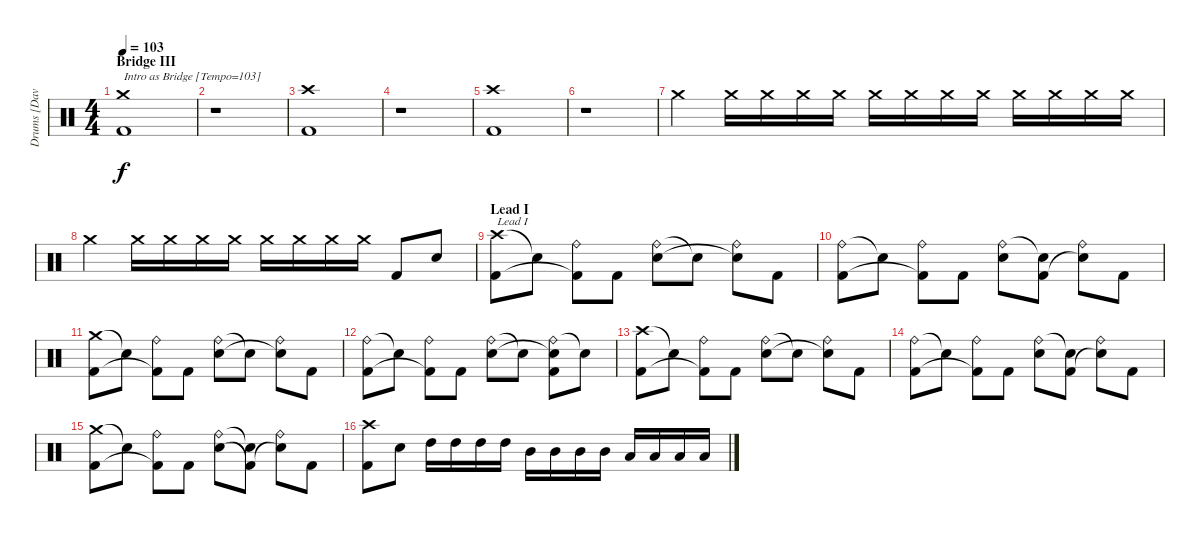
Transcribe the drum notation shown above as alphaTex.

\track ("Drums [Dave Culross]" "Drums [Dav") {instrument percussion}
\staff {score}
\articulation defaults
\ts (4 4)
\section ("" "Bridge III")
\tempo 103
\clef neutral
\ks c
("Crash medium (hit)" "Kick (hit) 2").1{txt "Intro as Bridge [Tempo=103]" dy f} |
r.1 |
("Crash high (hit)" "Kick (hit) 2").1 |
r.1 |
("Crash high (hit)" "Kick (hit) 2").1 |
r.1 |
"Crash medium (hit)".4 "Crash medium (hit)".16{volume 3} "Crash medium (hit)".16{volume 14} "Crash medium (hit)".16 "Crash medium (hit)".16 "Crash medium (hit)".16 "Crash medium (hit)".16 "Crash medium (hit)".16 "Crash medium (hit)".16 "Crash medium (hit)".16 "Crash medium (hit)".16 "Crash medium (hit)".16 "Crash medium (hit)".16 |
"Crash medium (hit)".4 "Crash medium (hit)".16{volume 3} "Crash medium (hit)".16{volume 14} "Crash medium (hit)".16 "Crash medium (hit)".16 "Crash medium (hit)".16 "Crash medium (hit)".16 "Crash medium (hit)".16 "Crash medium (hit)".16 "Kick (hit) 2".8 "Electric Snare (hit)".8 |
\section ("" "Lead I")
("Crash high (hit)" "Kick (hit) 2").8{txt "Lead I"} "Snare (hit)"{t}.8 ("Ride (bell)" "Kick (hit) 2"{t}).8 "Kick (hit) 2".8 ("Ride (bell)" "Electric Snare (hit)").8 "Snare (hit)"{t}.8 ("Ride (bell)" "Snare (hit)"{t}).8 "Kick (hit) 2".8 |
("Ride (bell)" "Kick (hit) 2").8 "Snare (hit)"{t}.8 ("Ride (bell)" "Kick (hit) 2"{t}).8 "Kick (hit) 2".8 ("Ride (bell)" "Electric Snare (hit)").8 ("Snare (hit)"{t} "Kick (hit) 2").8 ("Ride (bell)" "Snare (hit)"{t}).8 "Kick (hit) 2".8 |
("Crash medium (hit)" "Kick (hit) 2").8 "Snare (hit)"{t}.8 ("Ride (bell)" "Kick (hit) 2"{t}).8 "Kick (hit) 2".8 ("Ride (bell)" "Electric Snare (hit)").8 "Snare (hit)"{t}.8 ("Ride (bell)" "Snare (hit)"{t}).8 "Kick (hit) 2".8 |
("Ride (bell)" "Kick (hit) 2").8 "Snare (hit)"{t}.8 ("Ride (bell)" "Kick (hit) 2"{t}).8 "Kick (hit) 2".8 ("Ride (bell)" "Electric Snare (hit)").8 "Snare (hit)"{t}.8 ("Ride (bell)" "Snare (hit)"{t} "Kick (hit) 2").8 "Snare (hit)"{t}.8 |
("Crash high (hit)" "Kick (hit) 2").8 "Snare (hit)"{t}.8 ("Ride (bell)" "Kick (hit) 2"{t}).8 "Kick (hit) 2".8 ("Ride (bell)" "Electric Snare (hit)").8 "Snare (hit)"{t}.8 ("Ride (bell)" "Snare (hit)"{t}).8 "Kick (hit) 2".8 |
("Ride (bell)" "Kick (hit) 2").8 "Snare (hit)"{t}.8 ("Ride (bell)" "Kick (hit) 2"{t}).8 "Kick (hit) 2".8 ("Ride (bell)" "Electric Snare (hit)").8 ("Snare (hit)"{t} "Kick (hit) 2").8 ("Ride (bell)" "Snare (hit)"{t}).8 "Kick (hit) 2".8 |
("Crash medium (hit)" "Kick (hit) 2").8 "Snare (hit)"{t}.8 ("Ride (bell)" "Kick (hit) 2"{t}).8 "Kick (hit) 2".8 ("Ride (bell)" "Electric Snare (hit)").8 ("Snare (hit)"{t} "Kick (hit) 2"{t}).8 ("Ride (bell)" "Snare (hit)"{t}).8 "Kick (hit) 2".8 |
("Crash high (hit)" "Kick (hit) 2").8 "Electric Snare (hit)".8 "High Tom (hit)".16 "High Tom (hit)".16 "High Tom (hit)".16 "High Tom (hit)".16 "Mid Tom (hit)".16 "Mid Tom (hit)".16 "Mid Tom (hit)".16 "Mid Tom (hit)".16 "Low Tom (hit)".16 "Low Tom (hit)".16 "Low Tom (hit)".16 "Low Tom (hit)".16
